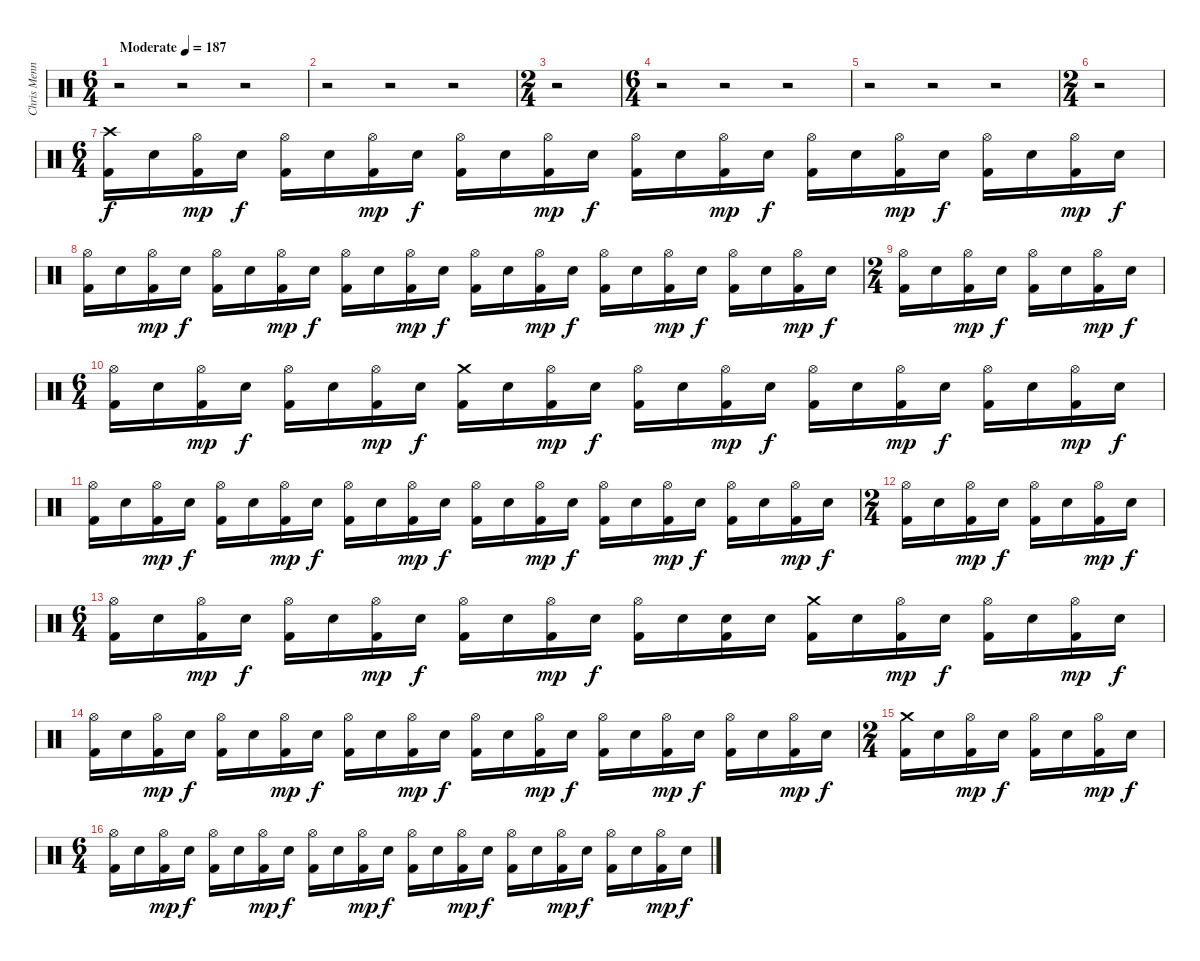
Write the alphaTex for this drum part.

\track ("Chris Menning" "Chris Menn") {instrument percussion}
\staff {score}
\articulation defaults
\ts (6 4)
\tempo (187 "Moderate")
\clef neutral
\ks c
r.2{dy f} r.2 r.2 |
r.2 r.2 r.2 |
\ts (2 4)
r.2 |
\ts (6 4)
r.2 r.2 r.2 |
r.2 r.2 r.2 |
\ts (2 4)
r.2 |
\ts (6 4)
("Crash high (hit)" "Kick (hit) 2").16 "Electric Snare (hit)".16 ("Hi-Hat (open)" "Kick (hit) 2").16{dy mp} "Electric Snare (hit)".16{dy f} ("Hi-Hat (open)" "Kick (hit) 2").16 "Electric Snare (hit)".16 ("Hi-Hat (open)" "Kick (hit) 2").16{dy mp} "Electric Snare (hit)".16{dy f} ("Hi-Hat (open)" "Kick (hit) 2").16 "Electric Snare (hit)".16 ("Hi-Hat (open)" "Kick (hit) 2").16{dy mp} "Electric Snare (hit)".16{dy f} ("Hi-Hat (open)" "Kick (hit) 2").16 "Electric Snare (hit)".16 ("Hi-Hat (open)" "Kick (hit) 2").16{dy mp} "Electric Snare (hit)".16{dy f} ("Hi-Hat (open)" "Kick (hit) 2").16 "Electric Snare (hit)".16 ("Hi-Hat (open)" "Kick (hit) 2").16{dy mp} "Electric Snare (hit)".16{dy f} ("Hi-Hat (open)" "Kick (hit) 2").16 "Electric Snare (hit)".16 ("Hi-Hat (open)" "Kick (hit) 2").16{dy mp} "Electric Snare (hit)".16{dy f} |
("Hi-Hat (open)" "Kick (hit) 2").16 "Electric Snare (hit)".16 ("Hi-Hat (open)" "Kick (hit) 2").16{dy mp} "Electric Snare (hit)".16{dy f} ("Hi-Hat (open)" "Kick (hit) 2").16 "Electric Snare (hit)".16 ("Hi-Hat (open)" "Kick (hit) 2").16{dy mp} "Electric Snare (hit)".16{dy f} ("Hi-Hat (open)" "Kick (hit) 2").16 "Electric Snare (hit)".16 ("Hi-Hat (open)" "Kick (hit) 2").16{dy mp} "Electric Snare (hit)".16{dy f} ("Hi-Hat (open)" "Kick (hit) 2").16 "Electric Snare (hit)".16 ("Hi-Hat (open)" "Kick (hit) 2").16{dy mp} "Electric Snare (hit)".16{dy f} ("Hi-Hat (open)" "Kick (hit) 2").16 "Electric Snare (hit)".16 ("Hi-Hat (open)" "Kick (hit) 2").16{dy mp} "Electric Snare (hit)".16{dy f} ("Hi-Hat (open)" "Kick (hit) 2").16 "Electric Snare (hit)".16 ("Hi-Hat (open)" "Kick (hit) 2").16{dy mp} "Electric Snare (hit)".16{dy f} |
\ts (2 4)
("Hi-Hat (open)" "Kick (hit) 2").16 "Electric Snare (hit)".16 ("Hi-Hat (open)" "Kick (hit) 2").16{dy mp} "Electric Snare (hit)".16{dy f} ("Hi-Hat (open)" "Kick (hit) 2").16 "Electric Snare (hit)".16 ("Hi-Hat (open)" "Kick (hit) 2").16{dy mp} "Electric Snare (hit)".16{dy f} |
\ts (6 4)
("Hi-Hat (open)" "Kick (hit) 2").16 "Electric Snare (hit)".16 ("Hi-Hat (open)" "Kick (hit) 2").16{dy mp} "Electric Snare (hit)".16{dy f} ("Hi-Hat (open)" "Kick (hit) 2").16 "Electric Snare (hit)".16 ("Hi-Hat (open)" "Kick (hit) 2").16{dy mp} "Electric Snare (hit)".16{dy f} ("Crash medium (hit)" "Kick (hit) 2").16 "Electric Snare (hit)".16 ("Hi-Hat (open)" "Kick (hit) 2").16{dy mp} "Electric Snare (hit)".16{dy f} ("Hi-Hat (open)" "Kick (hit) 2").16 "Electric Snare (hit)".16 ("Hi-Hat (open)" "Kick (hit) 2").16{dy mp} "Electric Snare (hit)".16{dy f} ("Hi-Hat (open)" "Kick (hit) 2").16 "Electric Snare (hit)".16 ("Hi-Hat (open)" "Kick (hit) 2").16{dy mp} "Electric Snare (hit)".16{dy f} ("Hi-Hat (open)" "Kick (hit) 2").16 "Electric Snare (hit)".16 ("Hi-Hat (open)" "Kick (hit) 2").16{dy mp} "Electric Snare (hit)".16{dy f} |
("Hi-Hat (open)" "Kick (hit) 2").16 "Electric Snare (hit)".16 ("Hi-Hat (open)" "Kick (hit) 2").16{dy mp} "Electric Snare (hit)".16{dy f} ("Hi-Hat (open)" "Kick (hit) 2").16 "Electric Snare (hit)".16 ("Hi-Hat (open)" "Kick (hit) 2").16{dy mp} "Electric Snare (hit)".16{dy f} ("Hi-Hat (open)" "Kick (hit) 2").16 "Electric Snare (hit)".16 ("Hi-Hat (open)" "Kick (hit) 2").16{dy mp} "Electric Snare (hit)".16{dy f} ("Hi-Hat (open)" "Kick (hit) 2").16 "Electric Snare (hit)".16 ("Hi-Hat (open)" "Kick (hit) 2").16{dy mp} "Electric Snare (hit)".16{dy f} ("Hi-Hat (open)" "Kick (hit) 2").16 "Electric Snare (hit)".16 ("Hi-Hat (open)" "Kick (hit) 2").16{dy mp} "Electric Snare (hit)".16{dy f} ("Hi-Hat (open)" "Kick (hit) 2").16 "Electric Snare (hit)".16 ("Hi-Hat (open)" "Kick (hit) 2").16{dy mp} "Electric Snare (hit)".16{dy f} |
\ts (2 4)
("Hi-Hat (open)" "Kick (hit) 2").16 "Electric Snare (hit)".16 ("Hi-Hat (open)" "Kick (hit) 2").16{dy mp} "Electric Snare (hit)".16{dy f} ("Hi-Hat (open)" "Kick (hit) 2").16 "Electric Snare (hit)".16 ("Hi-Hat (open)" "Kick (hit) 2").16{dy mp} "Electric Snare (hit)".16{dy f} |
\ts (6 4)
("Hi-Hat (open)" "Kick (hit) 2").16 "Electric Snare (hit)".16 ("Hi-Hat (open)" "Kick (hit) 2").16{dy mp} "Electric Snare (hit)".16{dy f} ("Hi-Hat (open)" "Kick (hit) 2").16 "Electric Snare (hit)".16 ("Hi-Hat (open)" "Kick (hit) 2").16{dy mp} "Electric Snare (hit)".16{dy f} ("Hi-Hat (open)" "Kick (hit) 2").16 "Electric Snare (hit)".16 ("Hi-Hat (open)" "Kick (hit) 2").16{dy mp} "Electric Snare (hit)".16{dy f} ("Hi-Hat (open)" "Kick (hit) 2").16 "Electric Snare (hit)".16 ("Electric Snare (hit)" "Kick (hit) 2").16 "Electric Snare (hit)".16 ("Crash medium (hit)" "Kick (hit) 2").16 "Electric Snare (hit)".16 ("Hi-Hat (open)" "Kick (hit) 2").16{dy mp} "Electric Snare (hit)".16{dy f} ("Hi-Hat (open)" "Kick (hit) 2").16 "Electric Snare (hit)".16 ("Hi-Hat (open)" "Kick (hit) 2").16{dy mp} "Electric Snare (hit)".16{dy f} |
("Hi-Hat (open)" "Kick (hit) 2").16 "Electric Snare (hit)".16 ("Hi-Hat (open)" "Kick (hit) 2").16{dy mp} "Electric Snare (hit)".16{dy f} ("Hi-Hat (open)" "Kick (hit) 2").16 "Electric Snare (hit)".16 ("Hi-Hat (open)" "Kick (hit) 2").16{dy mp} "Electric Snare (hit)".16{dy f} ("Hi-Hat (open)" "Kick (hit) 2").16 "Electric Snare (hit)".16 ("Hi-Hat (open)" "Kick (hit) 2").16{dy mp} "Electric Snare (hit)".16{dy f} ("Hi-Hat (open)" "Kick (hit) 2").16 "Electric Snare (hit)".16 ("Hi-Hat (open)" "Kick (hit) 2").16{dy mp} "Electric Snare (hit)".16{dy f} ("Hi-Hat (open)" "Kick (hit) 2").16 "Electric Snare (hit)".16 ("Hi-Hat (open)" "Kick (hit) 2").16{dy mp} "Electric Snare (hit)".16{dy f} ("Hi-Hat (open)" "Kick (hit) 2").16 "Electric Snare (hit)".16 ("Hi-Hat (open)" "Kick (hit) 2").16{dy mp} "Electric Snare (hit)".16{dy f} |
\ts (2 4)
("Crash medium (hit)" "Kick (hit) 2").16 "Electric Snare (hit)".16 ("Hi-Hat (open)" "Kick (hit) 2").16{dy mp} "Electric Snare (hit)".16{dy f} ("Hi-Hat (open)" "Kick (hit) 2").16 "Electric Snare (hit)".16 ("Hi-Hat (open)" "Kick (hit) 2").16{dy mp} "Electric Snare (hit)".16{dy f} |
\ts (6 4)
("Hi-Hat (open)" "Kick (hit) 2").16 "Electric Snare (hit)".16 ("Hi-Hat (open)" "Kick (hit) 2").16{dy mp} "Electric Snare (hit)".16{dy f} ("Hi-Hat (open)" "Kick (hit) 2").16 "Electric Snare (hit)".16 ("Hi-Hat (open)" "Kick (hit) 2").16{dy mp} "Electric Snare (hit)".16{dy f} ("Hi-Hat (open)" "Kick (hit) 2").16 "Electric Snare (hit)".16 ("Hi-Hat (open)" "Kick (hit) 2").16{dy mp} "Electric Snare (hit)".16{dy f} ("Hi-Hat (open)" "Kick (hit) 2").16 "Electric Snare (hit)".16 ("Hi-Hat (open)" "Kick (hit) 2").16{dy mp} "Electric Snare (hit)".16{dy f} ("Hi-Hat (open)" "Kick (hit) 2").16 "Electric Snare (hit)".16 ("Hi-Hat (open)" "Kick (hit) 2").16{dy mp} "Electric Snare (hit)".16{dy f} ("Hi-Hat (open)" "Kick (hit) 2").16 "Electric Snare (hit)".16 ("Hi-Hat (open)" "Kick (hit) 2").16{dy mp} "Electric Snare (hit)".16{dy f}
